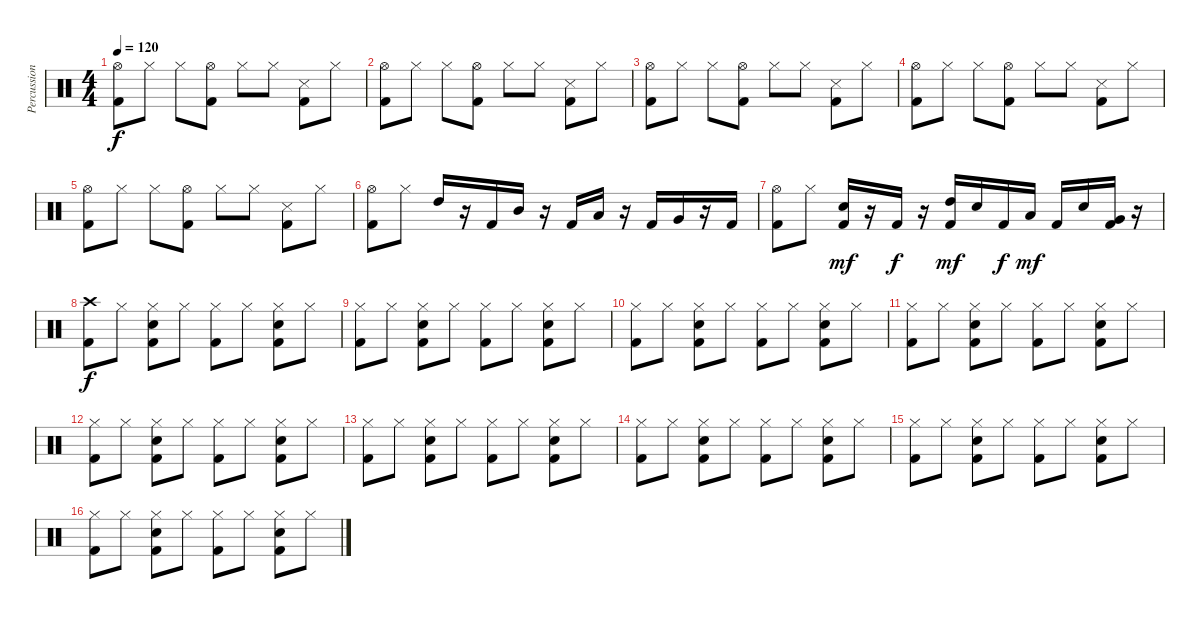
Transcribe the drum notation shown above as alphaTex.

\track ("Percussion" "Percussion") {instrument percussion}
\staff {score}
\articulation defaults
\ts (4 4)
\tempo 120
\clef neutral
\ks c
("Hi-Hat (open)" "Kick (hit) 2").8{dy f} "Hi-Hat (closed)".8 "Hi-Hat (closed)".8 ("Hi-Hat (open)" "Kick (hit) 2").8 "Hi-Hat (closed)".8 "Hi-Hat (closed)".8 ("Snare (side stick) 3" "Kick (hit) 2").8 "Hi-Hat (closed)".8 |
("Hi-Hat (open)" "Kick (hit) 2").8 "Hi-Hat (closed)".8 "Hi-Hat (closed)".8 ("Hi-Hat (open)" "Kick (hit) 2").8 "Hi-Hat (closed)".8 "Hi-Hat (closed)".8 ("Snare (side stick) 3" "Kick (hit) 2").8 "Hi-Hat (closed)".8 |
("Hi-Hat (open)" "Kick (hit) 2").8 "Hi-Hat (closed)".8 "Hi-Hat (closed)".8 ("Hi-Hat (open)" "Kick (hit) 2").8 "Hi-Hat (closed)".8 "Hi-Hat (closed)".8 ("Snare (side stick) 3" "Kick (hit) 2").8 "Hi-Hat (closed)".8 |
("Hi-Hat (open)" "Kick (hit) 2").8 "Hi-Hat (closed)".8 "Hi-Hat (closed)".8 ("Hi-Hat (open)" "Kick (hit) 2").8 "Hi-Hat (closed)".8 "Hi-Hat (closed)".8 ("Snare (side stick) 3" "Kick (hit) 2").8 "Hi-Hat (closed)".8 |
("Hi-Hat (open)" "Kick (hit) 2").8 "Hi-Hat (closed)".8 "Hi-Hat (closed)".8 ("Hi-Hat (open)" "Kick (hit) 2").8 "Hi-Hat (closed)".8 "Hi-Hat (closed)".8 ("Snare (side stick) 3" "Kick (hit) 2").8 "Hi-Hat (closed)".8 |
("Hi-Hat (open)" "Kick (hit) 2").8 "Hi-Hat (closed)".8 "High Tom (hit)".16 r.16 "Kick (hit) 2".16 "Mid Tom (hit)".16 r.16 "Kick (hit) 2".16 "Low Tom (hit)".16 r.16 "Kick (hit) 2".16 "Very Low Tom (hit)".16 r.16 "Kick (hit) 2".16 |
("Hi-Hat (open)" "Kick (hit) 2").8 "Hi-Hat (closed)".8 ("Snare (hit) 2" "Kick (hit) 2").16{dy mf} r.16 "Kick (hit) 2".16{dy f} r.16 ("High Tom (hit)" "Kick (hit) 2").16{dy mf} "Snare (hit) 2".16 "Kick (hit) 2".16{dy f} "Low Tom (hit)".16{dy mf} "Kick (hit) 2".16 "Snare (hit) 2".16 ("Very Low Tom (hit)" "Kick (hit) 2").16 r.16 |
("Crash high (hit)" "Kick (hit) 2").8{dy f} "Hi-Hat (closed)".8 ("Hi-Hat (closed)" "Snare (hit) 2" "Kick (hit) 2").8 "Hi-Hat (closed)".8 ("Hi-Hat (closed)" "Kick (hit) 2").8 "Hi-Hat (closed)".8 ("Hi-Hat (closed)" "Snare (hit) 2" "Kick (hit) 2").8 "Hi-Hat (closed)".8 |
("Hi-Hat (closed)" "Kick (hit) 2").8 "Hi-Hat (closed)".8 ("Hi-Hat (closed)" "Snare (hit) 2" "Kick (hit) 2").8 "Hi-Hat (closed)".8 ("Hi-Hat (closed)" "Kick (hit) 2").8 "Hi-Hat (closed)".8 ("Hi-Hat (closed)" "Snare (hit) 2" "Kick (hit) 2").8 "Hi-Hat (closed)".8 |
("Hi-Hat (closed)" "Kick (hit) 2").8 "Hi-Hat (closed)".8 ("Hi-Hat (closed)" "Snare (hit) 2" "Kick (hit) 2").8 "Hi-Hat (closed)".8 ("Hi-Hat (closed)" "Kick (hit) 2").8 "Hi-Hat (closed)".8 ("Hi-Hat (closed)" "Snare (hit) 2" "Kick (hit) 2").8 "Hi-Hat (closed)".8 |
("Hi-Hat (closed)" "Kick (hit) 2").8 "Hi-Hat (closed)".8 ("Hi-Hat (closed)" "Snare (hit) 2" "Kick (hit) 2").8 "Hi-Hat (closed)".8 ("Hi-Hat (closed)" "Kick (hit) 2").8 "Hi-Hat (closed)".8 ("Hi-Hat (closed)" "Snare (hit) 2" "Kick (hit) 2").8 "Hi-Hat (closed)".8 |
("Hi-Hat (closed)" "Kick (hit) 2").8 "Hi-Hat (closed)".8 ("Hi-Hat (closed)" "Snare (hit) 2" "Kick (hit) 2").8 "Hi-Hat (closed)".8 ("Hi-Hat (closed)" "Kick (hit) 2").8 "Hi-Hat (closed)".8 ("Hi-Hat (closed)" "Snare (hit) 2" "Kick (hit) 2").8 "Hi-Hat (closed)".8 |
("Hi-Hat (closed)" "Kick (hit) 2").8 "Hi-Hat (closed)".8 ("Hi-Hat (closed)" "Snare (hit) 2" "Kick (hit) 2").8 "Hi-Hat (closed)".8 ("Hi-Hat (closed)" "Kick (hit) 2").8 "Hi-Hat (closed)".8 ("Hi-Hat (closed)" "Snare (hit) 2" "Kick (hit) 2").8 "Hi-Hat (closed)".8 |
("Hi-Hat (closed)" "Kick (hit) 2").8 "Hi-Hat (closed)".8 ("Hi-Hat (closed)" "Snare (hit) 2" "Kick (hit) 2").8 "Hi-Hat (closed)".8 ("Hi-Hat (closed)" "Kick (hit) 2").8 "Hi-Hat (closed)".8 ("Hi-Hat (closed)" "Snare (hit) 2" "Kick (hit) 2").8 "Hi-Hat (closed)".8 |
("Hi-Hat (closed)" "Kick (hit) 2").8 "Hi-Hat (closed)".8 ("Hi-Hat (closed)" "Snare (hit) 2" "Kick (hit) 2").8 "Hi-Hat (closed)".8 ("Hi-Hat (closed)" "Kick (hit) 2").8 "Hi-Hat (closed)".8 ("Hi-Hat (closed)" "Snare (hit) 2" "Kick (hit) 2").8 "Hi-Hat (closed)".8 |
("Hi-Hat (closed)" "Kick (hit) 2").8 "Hi-Hat (closed)".8 ("Hi-Hat (closed)" "Snare (hit) 2" "Kick (hit) 2").8 "Hi-Hat (closed)".8 ("Hi-Hat (closed)" "Kick (hit) 2").8 "Hi-Hat (closed)".8 ("Hi-Hat (closed)" "Snare (hit) 2" "Kick (hit) 2").8 "Hi-Hat (closed)".8
